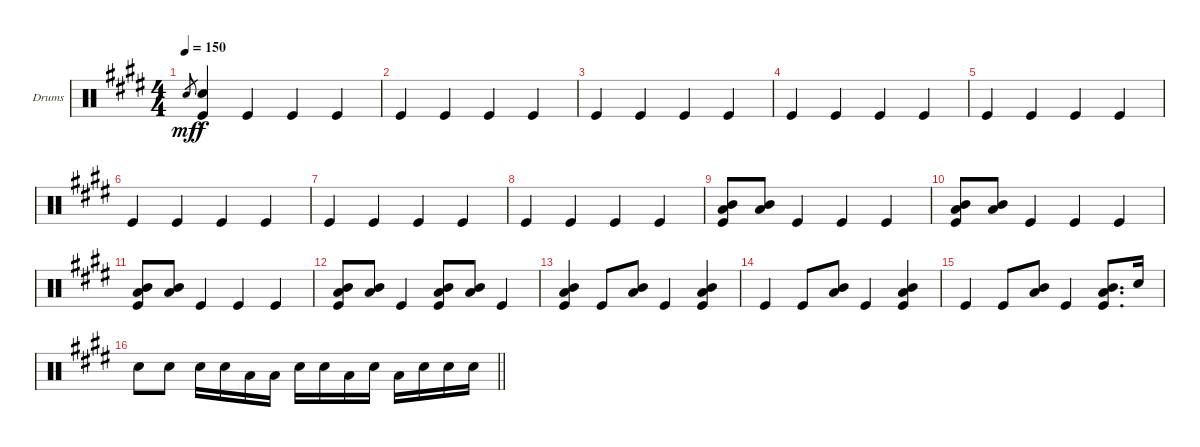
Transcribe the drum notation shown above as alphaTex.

\bracketExtendMode groupsimilarinstruments
\firstSystemTrackNameOrientation horizontal
\otherSystemsTrackNameOrientation horizontal
\track ("Drumkit" "Drums") {instrument percussion}
\staff {score}
\articulation defaults
\ts (4 4)
\tempo 150
\clef neutral
\ks e "Snare (hit) 2".8{gr dy mf}
("Snare (hit) 2" "Kick (hit)").4{dy f} "Kick (hit)".4 "Kick (hit)".4 "Kick (hit)".4 |
"Kick (hit)".4 "Kick (hit)".4 "Kick (hit)".4 "Kick (hit)".4 |
"Kick (hit)".4 "Kick (hit)".4 "Kick (hit)".4 "Kick (hit)".4 |
"Kick (hit)".4 "Kick (hit)".4 "Kick (hit)".4 "Kick (hit)".4 |
"Kick (hit)".4 "Kick (hit)".4 "Kick (hit)".4 "Kick (hit)".4 |
"Kick (hit)".4 "Kick (hit)".4 "Kick (hit)".4 "Kick (hit)".4 |
"Kick (hit)".4 "Kick (hit)".4 "Kick (hit)".4 "Kick (hit)".4 |
"Kick (hit)".4 "Kick (hit)".4 "Kick (hit)".4 "Kick (hit)".4 |
("Mid Tom (hit)" "Low Tom (hit)" "Kick (hit)").8 ("Mid Tom (hit)" "Low Tom (hit)").8 "Kick (hit)".4 "Kick (hit)".4 "Kick (hit)".4 |
("Mid Tom (hit)" "Low Tom (hit)" "Kick (hit)").8 ("Mid Tom (hit)" "Low Tom (hit)").8 "Kick (hit)".4 "Kick (hit)".4 "Kick (hit)".4 |
("Mid Tom (hit)" "Low Tom (hit)" "Kick (hit)").8 ("Mid Tom (hit)" "Low Tom (hit)").8 "Kick (hit)".4 "Kick (hit)".4 "Kick (hit)".4 |
("Mid Tom (hit)" "Low Tom (hit)" "Kick (hit)").8 ("Mid Tom (hit)" "Low Tom (hit)").8 "Kick (hit)".4 ("Mid Tom (hit)" "Low Tom (hit)" "Kick (hit)").8 ("Mid Tom (hit)" "Low Tom (hit)").8 "Kick (hit)".4 |
("Mid Tom (hit)" "Low Tom (hit)" "Kick (hit)").4 "Kick (hit)".8 ("Mid Tom (hit)" "Low Tom (hit)").8 "Kick (hit)".4 ("Mid Tom (hit)" "Low Tom (hit)" "Kick (hit)").4 |
"Kick (hit)".4 "Kick (hit)".8 ("Mid Tom (hit)" "Low Tom (hit)").8 "Kick (hit)".4 ("Mid Tom (hit)" "Low Tom (hit)" "Kick (hit)").4 |
"Kick (hit)".4 "Kick (hit)".8 ("Mid Tom (hit)" "Low Tom (hit)").8 "Kick (hit)".4 ("Mid Tom (hit)" "Low Tom (hit)" "Kick (hit)").8{d} "Snare (hit) 2".16 |
\barLineRight lightlight "Snare (hit) 2".8 "Snare (hit) 2".8 "Snare (hit) 2".16 "Snare (hit) 2".16 "Low Tom (hit)".16 "Low Tom (hit)".16 "Snare (hit) 2".16 "Snare (hit) 2".16 "Low Tom (hit)".16 "Snare (hit) 2".16 "Low Tom (hit)".16 "Snare (hit) 2".16 "Snare (hit) 2".16 "Snare (hit) 2".16
